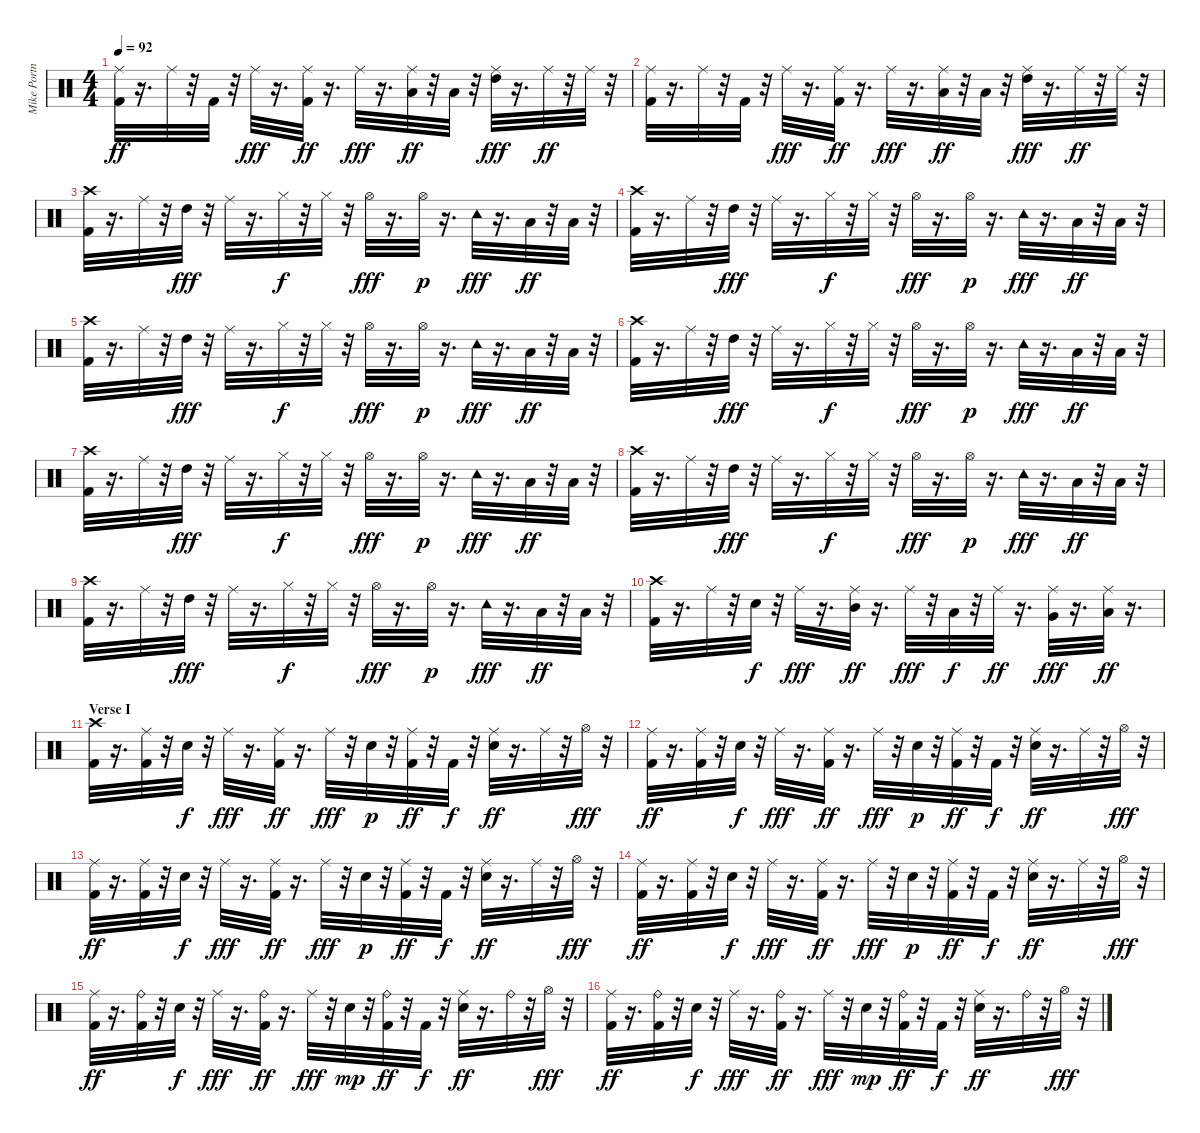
\track ("Mike Portnoy" "Mike Portn") {instrument percussion}
\staff {score}
\articulation defaults
\ts (4 4)
\tempo 92
\clef neutral
\ks c
("Ride (middle)" "Kick (hit) 2").32{dy ff} r.16{d} "Ride (middle)".32 r.32 "Kick (hit) 2".32 r.32 "Ride (middle)".32{dy fff} r.16{d} ("Ride (middle)" "Kick (hit) 2").32{dy ff} r.16{d} "Ride (middle)".32{dy fff} r.16{d} ("Ride (middle)" "Low Tom (hit)").32{dy ff} r.32 "Low Tom (hit)".32 r.32 ("Ride (middle)" "High Tom (hit)").32{dy fff} r.16{d} "Ride (middle)".32{dy ff} r.32 "Ride (middle)".32 r.32 |
("Ride (middle)" "Kick (hit) 2").32 r.16{d} "Ride (middle)".32 r.32 "Kick (hit) 2".32 r.32 "Ride (middle)".32{dy fff} r.16{d} ("Ride (middle)" "Kick (hit) 2").32{dy ff} r.16{d} "Ride (middle)".32{dy fff} r.16{d} ("Ride (middle)" "Low Tom (hit)").32{dy ff} r.32 "Low Tom (hit)".32 r.32 ("Ride (middle)" "High Tom (hit)").32{dy fff} r.16{d} "Ride (middle)".32{dy ff} r.32 "Ride (middle)".32 r.32 |
("Kick (hit) 2" "Crash high (hit)").32 r.16{d} "Ride (middle)".32 r.32 "High Tom (hit)".32{dy fff} r.32 "Ride (middle)".32 r.16{d} "Hi-Hat (closed)".32{dy f} r.32 "Hi-Hat (closed)".32 r.32 "Hi-Hat (open)".32{dy fff} r.16{d} "Hi-Hat (open)".32{dy p} r.16{d} "Tambourine (hit)".32{dy fff} r.16{d} "Low Tom (hit)".32{dy ff} r.32 "Low Tom (hit)".32 r.32 |
("Kick (hit) 2" "Crash high (hit)").32 r.16{d} "Ride (middle)".32 r.32 "High Tom (hit)".32{dy fff} r.32 "Ride (middle)".32 r.16{d} "Hi-Hat (closed)".32{dy f} r.32 "Hi-Hat (closed)".32 r.32 "Hi-Hat (open)".32{dy fff} r.16{d} "Hi-Hat (open)".32{dy p} r.16{d} "Tambourine (hit)".32{dy fff} r.16{d} "Low Tom (hit)".32{dy ff} r.32 "Low Tom (hit)".32 r.32 |
("Kick (hit) 2" "Crash high (hit)").32 r.16{d} "Ride (middle)".32 r.32 "High Tom (hit)".32{dy fff} r.32 "Ride (middle)".32 r.16{d} "Hi-Hat (closed)".32{dy f} r.32 "Hi-Hat (closed)".32 r.32 "Hi-Hat (open)".32{dy fff} r.16{d} "Hi-Hat (open)".32{dy p} r.16{d} "Tambourine (hit)".32{dy fff} r.16{d} "Low Tom (hit)".32{dy ff} r.32 "Low Tom (hit)".32 r.32 |
("Kick (hit) 2" "Crash high (hit)").32 r.16{d} "Ride (middle)".32 r.32 "High Tom (hit)".32{dy fff} r.32 "Ride (middle)".32 r.16{d} "Hi-Hat (closed)".32{dy f} r.32 "Hi-Hat (closed)".32 r.32 "Hi-Hat (open)".32{dy fff} r.16{d} "Hi-Hat (open)".32{dy p} r.16{d} "Tambourine (hit)".32{dy fff} r.16{d} "Low Tom (hit)".32{dy ff} r.32 "Low Tom (hit)".32 r.32 |
("Kick (hit) 2" "Crash high (hit)").32 r.16{d} "Ride (middle)".32 r.32 "High Tom (hit)".32{dy fff} r.32 "Ride (middle)".32 r.16{d} "Hi-Hat (closed)".32{dy f} r.32 "Hi-Hat (closed)".32 r.32 "Hi-Hat (open)".32{dy fff} r.16{d} "Hi-Hat (open)".32{dy p} r.16{d} "Tambourine (hit)".32{dy fff} r.16{d} "Low Tom (hit)".32{dy ff} r.32 "Low Tom (hit)".32 r.32 |
("Kick (hit) 2" "Crash high (hit)").32 r.16{d} "Ride (middle)".32 r.32 "High Tom (hit)".32{dy fff} r.32 "Ride (middle)".32 r.16{d} "Hi-Hat (closed)".32{dy f} r.32 "Hi-Hat (closed)".32 r.32 "Hi-Hat (open)".32{dy fff} r.16{d} "Hi-Hat (open)".32{dy p} r.16{d} "Tambourine (hit)".32{dy fff} r.16{d} "Low Tom (hit)".32{dy ff} r.32 "Low Tom (hit)".32 r.32 |
("Kick (hit) 2" "Crash high (hit)").32 r.16{d} "Ride (middle)".32 r.32 "High Tom (hit)".32{dy fff} r.32 "Ride (middle)".32 r.16{d} "Hi-Hat (closed)".32{dy f} r.32 "Hi-Hat (closed)".32 r.32 "Hi-Hat (open)".32{dy fff} r.16{d} "Hi-Hat (open)".32{dy p} r.16{d} "Tambourine (hit)".32{dy fff} r.16{d} "Low Tom (hit)".32{dy ff} r.32 "Low Tom (hit)".32 r.32 |
("Kick (hit) 2" "Crash high (hit)").32 r.16{d} "Ride (middle)".32 r.32 "Snare (hit) 2".32{dy f} r.32 "Ride (middle)".32{dy fff} r.16{d} ("Ride (middle)" "Mid Tom (hit)").32{dy ff} r.16{d} "Ride (middle)".32{dy fff} r.32 "Low Tom (hit)".32{dy f} r.32 "Ride (middle)".32{dy ff} r.16{d} ("Ride (middle)" "Very Low Tom (hit)").32{dy fff} r.16{d} ("Ride (middle)" "Low Floor Tom (hit)").32{dy ff} r.16{d} |
\section ("" "Verse I")
("Kick (hit) 2" "Crash high (hit)").32 r.16{d} ("Ride (middle)" "Kick (hit) 2").32 r.32 "Snare (hit) 2".32{dy f} r.32 "Ride (middle)".32{dy fff} r.16{d} ("Ride (middle)" "Kick (hit) 2").32{dy ff} r.16{d} "Ride (middle)".32{dy fff} r.32 "Snare (hit) 2".32{dy p} r.32 ("Ride (middle)" "Kick (hit) 2").32{dy ff} r.32 "Kick (hit) 2".32{dy f} r.32 ("Ride (middle)" "Snare (hit) 2").32{dy ff} r.16{d} "Ride (middle)".32 r.32 "Hi-Hat (open)".32{dy fff} r.32 |
("Ride (middle)" "Kick (hit) 2").32{dy ff} r.16{d} ("Ride (middle)" "Kick (hit) 2").32 r.32 "Snare (hit) 2".32{dy f} r.32 "Ride (middle)".32{dy fff} r.16{d} ("Ride (middle)" "Kick (hit) 2").32{dy ff} r.16{d} "Ride (middle)".32{dy fff} r.32 "Snare (hit) 2".32{dy p} r.32 ("Ride (middle)" "Kick (hit) 2").32{dy ff} r.32 "Kick (hit) 2".32{dy f} r.32 ("Ride (middle)" "Snare (hit) 2").32{dy ff} r.16{d} "Ride (middle)".32 r.32 "Hi-Hat (open)".32{dy fff} r.32 |
("Ride (middle)" "Kick (hit) 2").32{dy ff} r.16{d} ("Ride (middle)" "Kick (hit) 2").32 r.32 "Snare (hit) 2".32{dy f} r.32 "Ride (middle)".32{dy fff} r.16{d} ("Ride (middle)" "Kick (hit) 2").32{dy ff} r.16{d} "Ride (middle)".32{dy fff} r.32 "Snare (hit) 2".32{dy p} r.32 ("Ride (middle)" "Kick (hit) 2").32{dy ff} r.32 "Kick (hit) 2".32{dy f} r.32 ("Ride (middle)" "Snare (hit) 2").32{dy ff} r.16{d} "Ride (middle)".32 r.32 "Hi-Hat (open)".32{dy fff} r.32 |
("Ride (middle)" "Kick (hit) 2").32{dy ff} r.16{d} ("Ride (middle)" "Kick (hit) 2").32 r.32 "Snare (hit) 2".32{dy f} r.32 "Ride (middle)".32{dy fff} r.16{d} ("Ride (middle)" "Kick (hit) 2").32{dy ff} r.16{d} "Ride (middle)".32{dy fff} r.32 "Snare (hit) 2".32{dy p} r.32 ("Ride (middle)" "Kick (hit) 2").32{dy ff} r.32 "Kick (hit) 2".32{dy f} r.32 ("Ride (middle)" "Snare (hit) 2").32{dy ff} r.16{d} "Ride (middle)".32 r.32 "Hi-Hat (open)".32{dy fff} r.32 |
("Ride (middle)" "Kick (hit) 2").32{dy ff} r.16{d} ("Kick (hit) 2" "Ride (bell)").32 r.32 "Snare (hit) 2".32{dy f} r.32 "Ride (middle)".32{dy fff} r.16{d} ("Kick (hit) 2" "Ride (bell)").32{dy ff} r.16{d} "Ride (middle)".32{dy fff} r.32 "Snare (hit) 2".32{dy mp} r.32 ("Kick (hit) 2" "Ride (bell)").32{dy ff} r.32 "Kick (hit) 2".32{dy f} r.32 ("Ride (middle)" "Snare (hit) 2").32{dy ff} r.16{d} "Ride (bell)".32 r.32 "Hi-Hat (open)".32{dy fff} r.32 |
("Ride (middle)" "Kick (hit) 2").32{dy ff} r.16{d} ("Kick (hit) 2" "Ride (bell)").32 r.32 "Snare (hit) 2".32{dy f} r.32 "Ride (middle)".32{dy fff} r.16{d} ("Kick (hit) 2" "Ride (bell)").32{dy ff} r.16{d} "Ride (middle)".32{dy fff} r.32 "Snare (hit) 2".32{dy mp} r.32 ("Kick (hit) 2" "Ride (bell)").32{dy ff} r.32 "Kick (hit) 2".32{dy f} r.32 ("Ride (middle)" "Snare (hit) 2").32{dy ff} r.16{d} "Ride (bell)".32 r.32 "Hi-Hat (open)".32{dy fff} r.32
